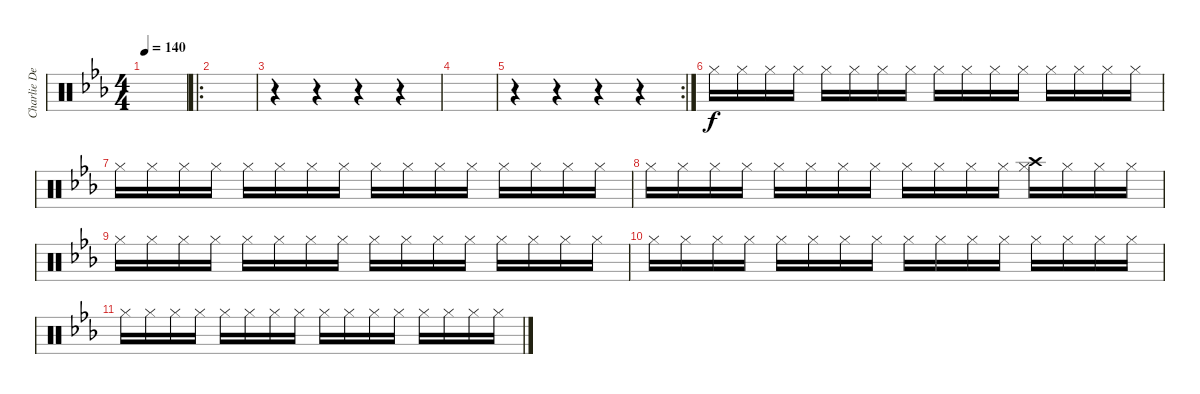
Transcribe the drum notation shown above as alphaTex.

\track ("Charlie Devil" "Charlie De") {instrument percussion}
\staff {score}
\articulation defaults
\ts (4 4)
\tempo 140
\clef neutral
\ks eb
|
\ro
|
r.4 r.4 r.4 r.4 |
|
\rc 2
r.4 r.4 r.4 r.4 |
"Hi-Hat (closed)".16 "Hi-Hat (closed)".16 "Hi-Hat (closed)".16 "Hi-Hat (closed)".16 "Hi-Hat (closed)".16 "Hi-Hat (closed)".16 "Hi-Hat (closed)".16 "Hi-Hat (closed)".16 "Hi-Hat (closed)".16 "Hi-Hat (closed)".16 "Hi-Hat (closed)".16 "Hi-Hat (closed)".16 "Hi-Hat (closed)".16 "Hi-Hat (closed)".16 "Hi-Hat (closed)".16 "Hi-Hat (closed)".16 |
"Hi-Hat (closed)".16 "Hi-Hat (closed)".16 "Hi-Hat (closed)".16 "Hi-Hat (closed)".16 "Hi-Hat (closed)".16 "Hi-Hat (closed)".16 "Hi-Hat (closed)".16 "Hi-Hat (closed)".16 "Hi-Hat (closed)".16 "Hi-Hat (closed)".16 "Hi-Hat (closed)".16 "Hi-Hat (closed)".16 "Hi-Hat (closed)".16 "Hi-Hat (closed)".16 "Hi-Hat (closed)".16 "Hi-Hat (closed)".16 |
"Hi-Hat (closed)".16 "Hi-Hat (closed)".16 "Hi-Hat (closed)".16 "Hi-Hat (closed)".16 "Hi-Hat (closed)".16 "Hi-Hat (closed)".16 "Hi-Hat (closed)".16 "Hi-Hat (closed)".16 "Hi-Hat (closed)".16 "Hi-Hat (closed)".16 "Hi-Hat (closed)".16 "Hi-Hat (closed)".16 ("Hi-Hat (closed)" "Crash high (hit)").16 "Hi-Hat (closed)".16 "Hi-Hat (closed)".16 "Hi-Hat (closed)".16 |
"Hi-Hat (closed)".16 "Hi-Hat (closed)".16 "Hi-Hat (closed)".16 "Hi-Hat (closed)".16 "Hi-Hat (closed)".16 "Hi-Hat (closed)".16 "Hi-Hat (closed)".16 "Hi-Hat (closed)".16 "Hi-Hat (closed)".16 "Hi-Hat (closed)".16 "Hi-Hat (closed)".16 "Hi-Hat (closed)".16 "Hi-Hat (closed)".16 "Hi-Hat (closed)".16 "Hi-Hat (closed)".16 "Hi-Hat (closed)".16 |
"Hi-Hat (closed)".16 "Hi-Hat (closed)".16 "Hi-Hat (closed)".16 "Hi-Hat (closed)".16 "Hi-Hat (closed)".16 "Hi-Hat (closed)".16 "Hi-Hat (closed)".16 "Hi-Hat (closed)".16 "Hi-Hat (closed)".16 "Hi-Hat (closed)".16 "Hi-Hat (closed)".16 "Hi-Hat (closed)".16 "Hi-Hat (closed)".16 "Hi-Hat (closed)".16 "Hi-Hat (closed)".16 "Hi-Hat (closed)".16 |
"Hi-Hat (closed)".16 "Hi-Hat (closed)".16 "Hi-Hat (closed)".16 "Hi-Hat (closed)".16 "Hi-Hat (closed)".16 "Hi-Hat (closed)".16 "Hi-Hat (closed)".16 "Hi-Hat (closed)".16 "Hi-Hat (closed)".16 "Hi-Hat (closed)".16 "Hi-Hat (closed)".16 "Hi-Hat (closed)".16 "Hi-Hat (closed)".16 "Hi-Hat (closed)".16 "Hi-Hat (closed)".16 "Hi-Hat (closed)".16
